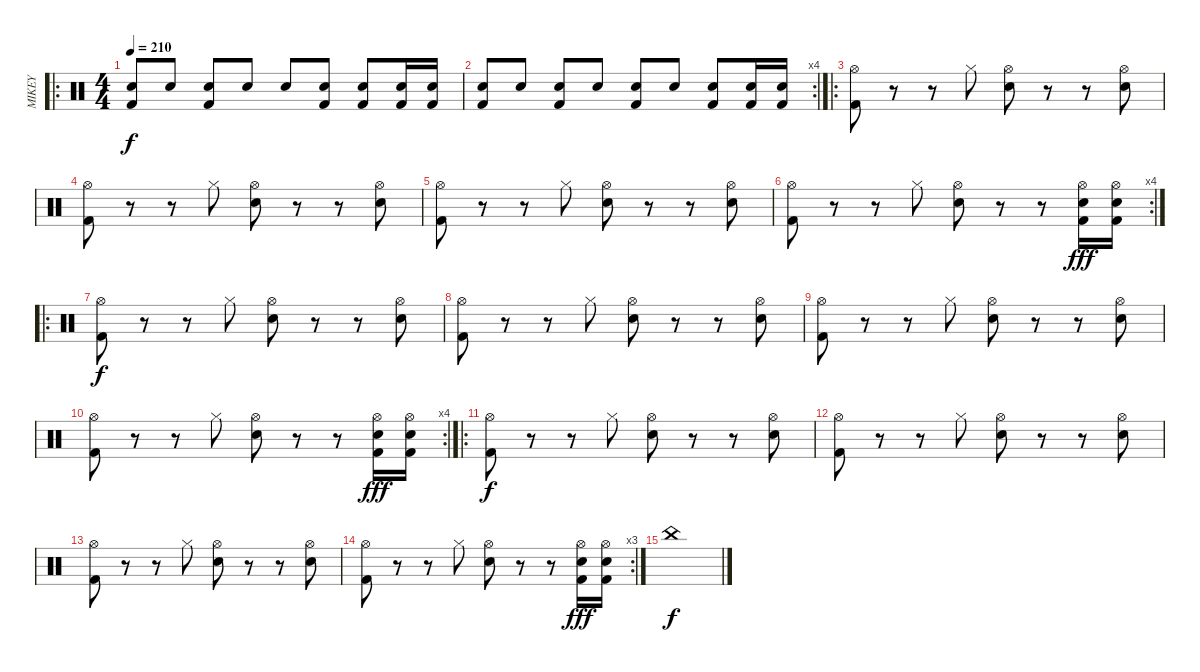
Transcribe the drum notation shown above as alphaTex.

\track ("MIKEY" "MIKEY") {instrument percussion}
\staff {score}
\articulation defaults
\ro
\ts (4 4)
\tempo 210
\clef neutral
\ks c
("Kick (hit) 2" "Electric Snare (hit)").8{dy f} "Electric Snare (hit)".8 ("Kick (hit) 2" "Electric Snare (hit)").8 "Electric Snare (hit)".8 "Electric Snare (hit)".8 ("Kick (hit) 2" "Electric Snare (hit)").8 ("Kick (hit) 2" "Electric Snare (hit)").8 ("Kick (hit) 2" "Electric Snare (hit)").16 ("Kick (hit) 2" "Electric Snare (hit)").16 |
\rc 4
("Kick (hit) 2" "Electric Snare (hit)").8 "Electric Snare (hit)".8 ("Kick (hit) 2" "Electric Snare (hit)").8 "Electric Snare (hit)".8 ("Kick (hit) 2" "Electric Snare (hit)").8 "Electric Snare (hit)".8 ("Kick (hit) 2" "Electric Snare (hit)").8 ("Kick (hit) 2" "Electric Snare (hit)").16 ("Kick (hit) 2" "Electric Snare (hit)").16 |
\ro
("Hi-Hat (open)" "Kick (hit) 2").8 r.8 r.8 "Hi-Hat (closed)".8 ("Hi-Hat (open)" "Snare (hit) 2").8 r.8 r.8 ("Hi-Hat (open)" "Snare (hit) 2").8 |
("Hi-Hat (open)" "Kick (hit) 2").8 r.8 r.8 "Hi-Hat (closed)".8 ("Hi-Hat (open)" "Snare (hit) 2").8 r.8 r.8 ("Hi-Hat (open)" "Snare (hit) 2").8 |
("Hi-Hat (open)" "Kick (hit) 2").8 r.8 r.8 "Hi-Hat (closed)".8 ("Hi-Hat (open)" "Snare (hit) 2").8 r.8 r.8 ("Hi-Hat (open)" "Snare (hit) 2").8 |
\rc 4
("Hi-Hat (open)" "Kick (hit) 2").8 r.8 r.8 "Hi-Hat (closed)".8 ("Hi-Hat (open)" "Snare (hit) 2").8 r.8 r.8 ("Kick (hit) 2" "Hi-Hat (open)" "Electric Snare (hit)").16{dy fff} ("Kick (hit) 2" "Hi-Hat (open)" "Electric Snare (hit)").16 |
\ro
("Hi-Hat (open)" "Kick (hit) 2").8{dy f} r.8 r.8 "Hi-Hat (closed)".8 ("Hi-Hat (open)" "Snare (hit) 2").8 r.8 r.8 ("Hi-Hat (open)" "Snare (hit) 2").8 |
("Hi-Hat (open)" "Kick (hit) 2").8 r.8 r.8 "Hi-Hat (closed)".8 ("Hi-Hat (open)" "Snare (hit) 2").8 r.8 r.8 ("Hi-Hat (open)" "Snare (hit) 2").8 |
("Hi-Hat (open)" "Kick (hit) 2").8 r.8 r.8 "Hi-Hat (closed)".8 ("Hi-Hat (open)" "Snare (hit) 2").8 r.8 r.8 ("Hi-Hat (open)" "Snare (hit) 2").8 |
\rc 4
("Hi-Hat (open)" "Kick (hit) 2").8 r.8 r.8 "Hi-Hat (closed)".8 ("Hi-Hat (open)" "Snare (hit) 2").8 r.8 r.8 ("Kick (hit) 2" "Hi-Hat (open)" "Electric Snare (hit)").16{dy fff} ("Kick (hit) 2" "Hi-Hat (open)" "Electric Snare (hit)").16 |
\ro
("Hi-Hat (open)" "Kick (hit) 2").8{dy f} r.8 r.8 "Hi-Hat (closed)".8 ("Hi-Hat (open)" "Snare (hit) 2").8 r.8 r.8 ("Hi-Hat (open)" "Snare (hit) 2").8 |
("Hi-Hat (open)" "Kick (hit) 2").8 r.8 r.8 "Hi-Hat (closed)".8 ("Hi-Hat (open)" "Snare (hit) 2").8 r.8 r.8 ("Hi-Hat (open)" "Snare (hit) 2").8 |
("Hi-Hat (open)" "Kick (hit) 2").8 r.8 r.8 "Hi-Hat (closed)".8 ("Hi-Hat (open)" "Snare (hit) 2").8 r.8 r.8 ("Hi-Hat (open)" "Snare (hit) 2").8 |
\rc 3
("Hi-Hat (open)" "Kick (hit) 2").8 r.8 r.8 "Hi-Hat (closed)".8 ("Hi-Hat (open)" "Snare (hit) 2").8 r.8 r.8 ("Kick (hit) 2" "Hi-Hat (open)" "Electric Snare (hit)").16{dy fff} ("Kick (hit) 2" "Hi-Hat (open)" "Electric Snare (hit)").16 |
"China (hit)".1{dy f}
